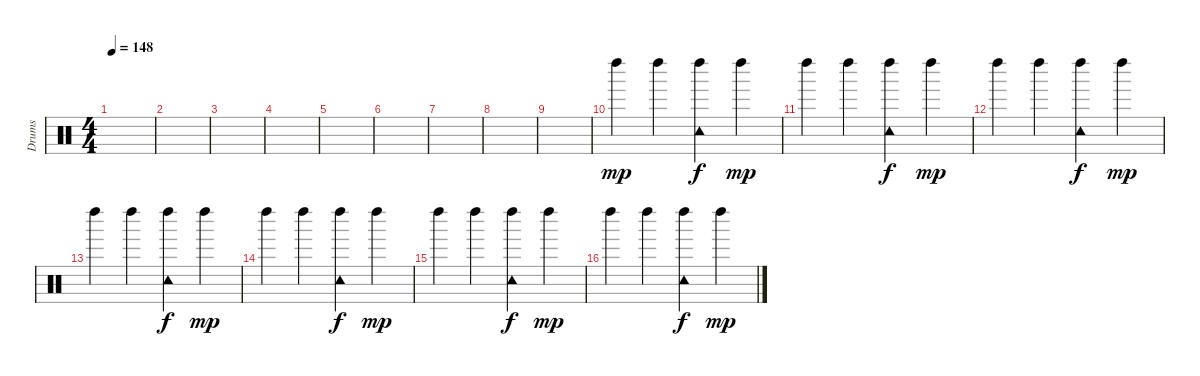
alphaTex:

\track ("Drums" "Drums") {instrument percussion}
\staff {score}
\articulation defaults
\ts (4 4)
\tempo 148
\clef neutral
\ks c
|
|
|
|
|
|
|
|
|
"Left Maraca (hit)".4{dy mp} "Left Maraca (hit)".4 ("Tambourine (hit)" "Left Maraca (hit)").4{dy f} "Left Maraca (hit)".4{dy mp} |
"Left Maraca (hit)".4 "Left Maraca (hit)".4 ("Tambourine (hit)" "Left Maraca (hit)").4{dy f} "Left Maraca (hit)".4{dy mp} |
"Left Maraca (hit)".4 "Left Maraca (hit)".4 ("Tambourine (hit)" "Left Maraca (hit)").4{dy f} "Left Maraca (hit)".4{dy mp} |
"Left Maraca (hit)".4 "Left Maraca (hit)".4 ("Tambourine (hit)" "Left Maraca (hit)").4{dy f} "Left Maraca (hit)".4{dy mp} |
"Left Maraca (hit)".4 "Left Maraca (hit)".4 ("Tambourine (hit)" "Left Maraca (hit)").4{dy f} "Left Maraca (hit)".4{dy mp} |
"Left Maraca (hit)".4 "Left Maraca (hit)".4 ("Tambourine (hit)" "Left Maraca (hit)").4{dy f} "Left Maraca (hit)".4{dy mp} |
"Left Maraca (hit)".4 "Left Maraca (hit)".4 ("Tambourine (hit)" "Left Maraca (hit)").4{dy f} "Left Maraca (hit)".4{dy mp}
